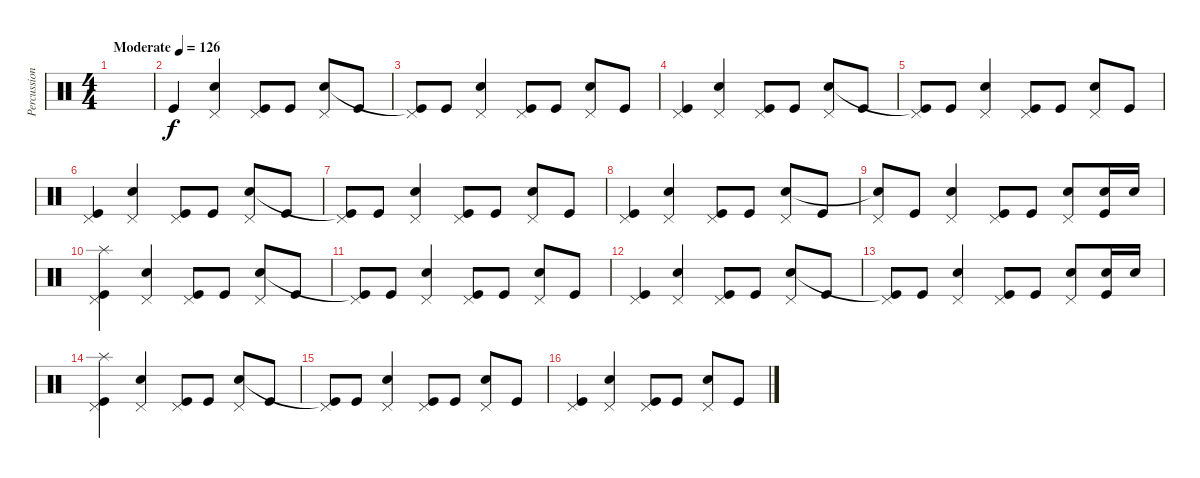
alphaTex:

\track ("Percussion" "Percussion") {instrument percussion}
\staff {score}
\articulation defaults
\ts (4 4)
\tempo (126 "Moderate")
\clef neutral
\ks c
|
"Kick (hit)".4 ("Pedal Hi-Hat (hit)" "Snare (hit) 2").4 ("Pedal Hi-Hat (hit)" "Kick (hit)").8 "Kick (hit)".8 ("Pedal Hi-Hat (hit)" "Snare (hit) 2").8 "Kick (hit)".8 |
("Pedal Hi-Hat (hit)" "Kick (hit)"{t}).8 "Kick (hit)".8 ("Pedal Hi-Hat (hit)" "Snare (hit) 2").4 ("Pedal Hi-Hat (hit)" "Kick (hit)").8 "Kick (hit)".8 ("Pedal Hi-Hat (hit)" "Snare (hit) 2").8 "Kick (hit)".8 |
("Pedal Hi-Hat (hit)" "Kick (hit)").4 ("Pedal Hi-Hat (hit)" "Snare (hit) 2").4 ("Pedal Hi-Hat (hit)" "Kick (hit)").8 "Kick (hit)".8 ("Pedal Hi-Hat (hit)" "Snare (hit) 2").8 "Kick (hit)".8 |
("Pedal Hi-Hat (hit)" "Kick (hit)"{t}).8 "Kick (hit)".8 ("Pedal Hi-Hat (hit)" "Snare (hit) 2").4 ("Pedal Hi-Hat (hit)" "Kick (hit)").8 "Kick (hit)".8 ("Pedal Hi-Hat (hit)" "Snare (hit) 2").8 "Kick (hit)".8 |
("Pedal Hi-Hat (hit)" "Kick (hit)").4 ("Pedal Hi-Hat (hit)" "Snare (hit) 2").4 ("Pedal Hi-Hat (hit)" "Kick (hit)").8 "Kick (hit)".8 ("Pedal Hi-Hat (hit)" "Snare (hit) 2").8 "Kick (hit)".8 |
("Pedal Hi-Hat (hit)" "Kick (hit)"{t}).8 "Kick (hit)".8 ("Pedal Hi-Hat (hit)" "Snare (hit) 2").4 ("Pedal Hi-Hat (hit)" "Kick (hit)").8 "Kick (hit)".8 ("Pedal Hi-Hat (hit)" "Snare (hit) 2").8 "Kick (hit)".8 |
("Pedal Hi-Hat (hit)" "Kick (hit)").4 ("Pedal Hi-Hat (hit)" "Snare (hit) 2").4 ("Pedal Hi-Hat (hit)" "Kick (hit)").8 "Kick (hit)".8 ("Pedal Hi-Hat (hit)" "Snare (hit) 2").8 "Kick (hit)".8 |
("Pedal Hi-Hat (hit)" "Snare (hit)"{t}).8 "Kick (hit)".8 ("Pedal Hi-Hat (hit)" "Snare (hit) 2").4 ("Pedal Hi-Hat (hit)" "Kick (hit)").8 "Kick (hit)".8 ("Pedal Hi-Hat (hit)" "Snare (hit) 2").8 ("Snare (hit) 2" "Kick (hit)").16 "Snare (hit) 2".16 |
("Splash (hit)" "Pedal Hi-Hat (hit)" "Kick (hit)").4 ("Pedal Hi-Hat (hit)" "Snare (hit) 2").4 ("Pedal Hi-Hat (hit)" "Kick (hit)").8 "Kick (hit)".8 ("Pedal Hi-Hat (hit)" "Snare (hit) 2").8 "Kick (hit)".8 |
("Pedal Hi-Hat (hit)" "Kick (hit)"{t}).8 "Kick (hit)".8 ("Pedal Hi-Hat (hit)" "Snare (hit) 2").4 ("Pedal Hi-Hat (hit)" "Kick (hit)").8 "Kick (hit)".8 ("Pedal Hi-Hat (hit)" "Snare (hit) 2").8 "Kick (hit)".8 |
("Pedal Hi-Hat (hit)" "Kick (hit)").4 ("Pedal Hi-Hat (hit)" "Snare (hit) 2").4 ("Pedal Hi-Hat (hit)" "Kick (hit)").8 "Kick (hit)".8 ("Pedal Hi-Hat (hit)" "Snare (hit) 2").8 "Kick (hit)".8 |
("Pedal Hi-Hat (hit)" "Kick (hit)"{t}).8 "Kick (hit)".8 ("Pedal Hi-Hat (hit)" "Snare (hit) 2").4 ("Pedal Hi-Hat (hit)" "Kick (hit)").8 "Kick (hit)".8 ("Pedal Hi-Hat (hit)" "Snare (hit) 2").8 ("Snare (hit) 2" "Kick (hit)").16 "Snare (hit) 2".16 |
("Splash (hit)" "Pedal Hi-Hat (hit)" "Kick (hit)").4 ("Pedal Hi-Hat (hit)" "Snare (hit) 2").4 ("Pedal Hi-Hat (hit)" "Kick (hit)").8 "Kick (hit)".8 ("Pedal Hi-Hat (hit)" "Snare (hit) 2").8 "Kick (hit)".8 |
("Pedal Hi-Hat (hit)" "Kick (hit)"{t}).8 "Kick (hit)".8 ("Pedal Hi-Hat (hit)" "Snare (hit) 2").4 ("Pedal Hi-Hat (hit)" "Kick (hit)").8 "Kick (hit)".8 ("Pedal Hi-Hat (hit)" "Snare (hit) 2").8 "Kick (hit)".8 |
("Pedal Hi-Hat (hit)" "Kick (hit)").4 ("Pedal Hi-Hat (hit)" "Snare (hit) 2").4 ("Pedal Hi-Hat (hit)" "Kick (hit)").8 "Kick (hit)".8 ("Pedal Hi-Hat (hit)" "Snare (hit) 2").8 "Kick (hit)".8
